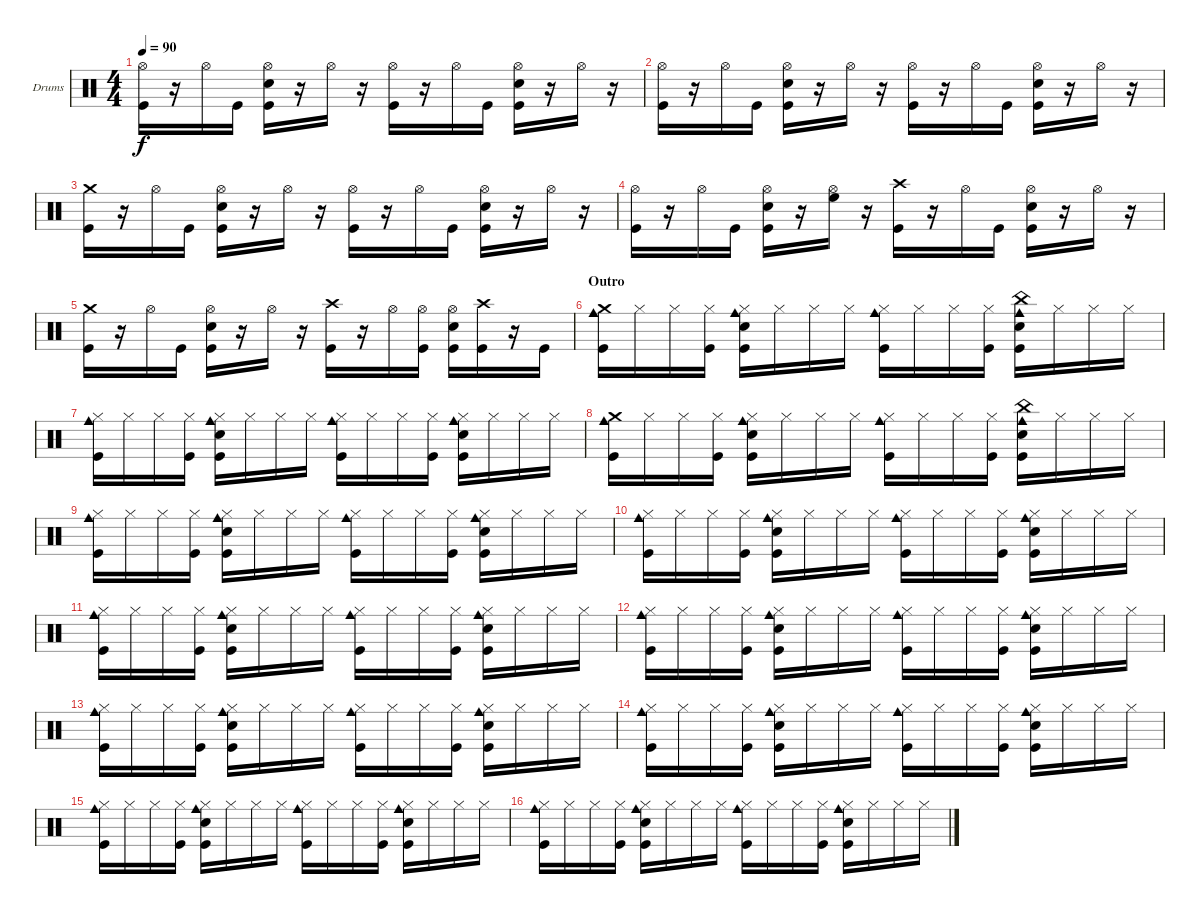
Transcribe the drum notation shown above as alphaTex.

\bracketExtendMode groupsimilarinstruments
\firstSystemTrackNameOrientation horizontal
\otherSystemsTrackNameOrientation horizontal
\track ("Drums" "Drums") {multiBarRest instrument percussion}
\staff {score}
\articulation defaults
\ts (4 4)
\tempo 90
\clef neutral
\ks c
("Hi-Hat (open)" "Kick (hit)").16{dy f} r.16 "Hi-Hat (open)".16 "Kick (hit)".16 ("Hi-Hat (open)" "Snare (hit) 2" "Kick (hit)").16 r.16 "Hi-Hat (open)".16 r.16 ("Hi-Hat (open)" "Kick (hit)").16 r.16 "Hi-Hat (open)".16 "Kick (hit)".16 ("Hi-Hat (open)" "Snare (hit) 2" "Kick (hit)").16 r.16 "Hi-Hat (open)".16 r.16 |
("Hi-Hat (open)" "Kick (hit)").16 r.16 "Hi-Hat (open)".16 "Kick (hit)".16 ("Hi-Hat (open)" "Snare (hit) 2" "Kick (hit)").16 r.16 "Hi-Hat (open)".16 r.16 ("Hi-Hat (open)" "Kick (hit)").16 r.16 "Hi-Hat (open)".16 "Kick (hit)".16 ("Hi-Hat (open)" "Snare (hit) 2" "Kick (hit)").16 r.16 "Hi-Hat (open)".16 r.16 |
("Crash medium (hit)" "Kick (hit)").16 r.16 "Hi-Hat (open)".16 "Kick (hit)".16 ("Hi-Hat (open)" "Snare (hit) 2" "Kick (hit)").16 r.16 "Hi-Hat (open)".16 r.16 ("Hi-Hat (open)" "Kick (hit)").16 r.16 "Hi-Hat (open)".16 "Kick (hit)".16 ("Hi-Hat (open)" "Snare (hit) 2" "Kick (hit)").16 r.16 "Hi-Hat (open)".16 r.16 |
("Hi-Hat (open)" "Kick (hit)").16 r.16 "Hi-Hat (open)".16 "Kick (hit)".16 ("Hi-Hat (open)" "Snare (hit) 2" "Kick (hit)").16 r.16 ("Hi-Hat (open)" "High Floor Tom (hit)").16 r.16 ("Crash high (hit)" "Kick (hit)").16 r.16 "Hi-Hat (open)".16 "Kick (hit)".16 ("Hi-Hat (open)" "Snare (hit) 2" "Kick (hit)").16 r.16 "Hi-Hat (open)".16 r.16 |
("Crash medium (hit)" "Kick (hit)").16 r.16 "Hi-Hat (open)".16 "Kick (hit)".16 ("Hi-Hat (open)" "Snare (hit) 2" "Kick (hit)").16 r.16 "Hi-Hat (open)".16 r.16 ("Crash high (hit)" "Kick (hit)").16 r.16 "Hi-Hat (open)".16 ("Hi-Hat (open)" "Kick (hit)").16 ("Hi-Hat (open)" "Snare (hit) 2" "Kick (hit)").16 ("Crash high (hit)" "Kick (hit)").16 r.16 "Kick (hit)".16 |
\section ("" "Outro")
("Crash medium (hit)" "Kick (hit)" "Cowbell medium (hit)").16 "Hi-Hat (closed)".16 "Hi-Hat (closed)".16 ("Hi-Hat (closed)" "Kick (hit)").16 ("Hi-Hat (closed)" "Snare (hit) 2" "Kick (hit)" "Cowbell medium (hit)").16 "Hi-Hat (closed)".16 "Hi-Hat (closed)".16 "Hi-Hat (closed)".16 ("Hi-Hat (closed)" "Kick (hit)" "Cowbell medium (hit)").16 "Hi-Hat (closed)".16 "Hi-Hat (closed)".16 ("Hi-Hat (closed)" "Kick (hit)").16 ("China (hit)" "Snare (hit) 2" "Kick (hit)" "Cowbell medium (hit)").16 "Hi-Hat (closed)".16 "Hi-Hat (closed)".16 "Hi-Hat (closed)".16 |
("Hi-Hat (closed)" "Kick (hit)" "Cowbell medium (hit)").16 "Hi-Hat (closed)".16 "Hi-Hat (closed)".16 ("Hi-Hat (closed)" "Kick (hit)").16 ("Hi-Hat (closed)" "Snare (hit) 2" "Kick (hit)" "Cowbell medium (hit)").16 "Hi-Hat (closed)".16 "Hi-Hat (closed)".16 "Hi-Hat (closed)".16 ("Hi-Hat (closed)" "Kick (hit)" "Cowbell medium (hit)").16 "Hi-Hat (closed)".16 "Hi-Hat (closed)".16 ("Hi-Hat (closed)" "Kick (hit)").16 ("Hi-Hat (closed)" "Snare (hit) 2" "Kick (hit)" "Cowbell medium (hit)").16 "Hi-Hat (closed)".16 "Hi-Hat (closed)".16 "Hi-Hat (closed)".16 |
("Crash medium (hit)" "Kick (hit)" "Cowbell medium (hit)").16 "Hi-Hat (closed)".16 "Hi-Hat (closed)".16 ("Hi-Hat (closed)" "Kick (hit)").16 ("Hi-Hat (closed)" "Snare (hit) 2" "Kick (hit)" "Cowbell medium (hit)").16 "Hi-Hat (closed)".16 "Hi-Hat (closed)".16 "Hi-Hat (closed)".16 ("Hi-Hat (closed)" "Kick (hit)" "Cowbell medium (hit)").16 "Hi-Hat (closed)".16 "Hi-Hat (closed)".16 ("Hi-Hat (closed)" "Kick (hit)").16 ("China (hit)" "Snare (hit) 2" "Kick (hit)" "Cowbell medium (hit)").16 "Hi-Hat (closed)".16 "Hi-Hat (closed)".16 "Hi-Hat (closed)".16 |
("Hi-Hat (closed)" "Kick (hit)" "Cowbell medium (hit)").16 "Hi-Hat (closed)".16 "Hi-Hat (closed)".16 ("Hi-Hat (closed)" "Kick (hit)").16 ("Hi-Hat (closed)" "Snare (hit) 2" "Kick (hit)" "Cowbell medium (hit)").16 "Hi-Hat (closed)".16 "Hi-Hat (closed)".16 "Hi-Hat (closed)".16 ("Hi-Hat (closed)" "Kick (hit)" "Cowbell medium (hit)").16 "Hi-Hat (closed)".16 "Hi-Hat (closed)".16 ("Hi-Hat (closed)" "Kick (hit)").16 ("Hi-Hat (closed)" "Snare (hit) 2" "Kick (hit)" "Cowbell medium (hit)").16 "Hi-Hat (closed)".16 "Hi-Hat (closed)".16 "Hi-Hat (closed)".16 |
("Hi-Hat (closed)" "Kick (hit)" "Cowbell medium (hit)").16 "Hi-Hat (closed)".16 "Hi-Hat (closed)".16 ("Hi-Hat (closed)" "Kick (hit)").16 ("Hi-Hat (closed)" "Snare (hit) 2" "Kick (hit)" "Cowbell medium (hit)").16 "Hi-Hat (closed)".16 "Hi-Hat (closed)".16 "Hi-Hat (closed)".16 ("Hi-Hat (closed)" "Kick (hit)" "Cowbell medium (hit)").16 "Hi-Hat (closed)".16 "Hi-Hat (closed)".16 ("Hi-Hat (closed)" "Kick (hit)").16 ("Hi-Hat (closed)" "Snare (hit) 2" "Kick (hit)" "Cowbell medium (hit)").16 "Hi-Hat (closed)".16 "Hi-Hat (closed)".16 "Hi-Hat (closed)".16 |
("Hi-Hat (closed)" "Kick (hit)" "Cowbell medium (hit)").16 "Hi-Hat (closed)".16 "Hi-Hat (closed)".16 ("Hi-Hat (closed)" "Kick (hit)").16 ("Hi-Hat (closed)" "Snare (hit) 2" "Kick (hit)" "Cowbell medium (hit)").16 "Hi-Hat (closed)".16 "Hi-Hat (closed)".16 "Hi-Hat (closed)".16 ("Hi-Hat (closed)" "Kick (hit)" "Cowbell medium (hit)").16 "Hi-Hat (closed)".16 "Hi-Hat (closed)".16 ("Hi-Hat (closed)" "Kick (hit)").16 ("Hi-Hat (closed)" "Snare (hit) 2" "Kick (hit)" "Cowbell medium (hit)").16 "Hi-Hat (closed)".16 "Hi-Hat (closed)".16 "Hi-Hat (closed)".16 |
("Hi-Hat (closed)" "Kick (hit)" "Cowbell medium (hit)").16 "Hi-Hat (closed)".16 "Hi-Hat (closed)".16 ("Hi-Hat (closed)" "Kick (hit)").16 ("Hi-Hat (closed)" "Snare (hit) 2" "Kick (hit)" "Cowbell medium (hit)").16 "Hi-Hat (closed)".16 "Hi-Hat (closed)".16 "Hi-Hat (closed)".16 ("Hi-Hat (closed)" "Kick (hit)" "Cowbell medium (hit)").16 "Hi-Hat (closed)".16 "Hi-Hat (closed)".16 ("Hi-Hat (closed)" "Kick (hit)").16 ("Hi-Hat (closed)" "Snare (hit) 2" "Kick (hit)" "Cowbell medium (hit)").16 "Hi-Hat (closed)".16 "Hi-Hat (closed)".16 "Hi-Hat (closed)".16 |
("Hi-Hat (closed)" "Kick (hit)" "Cowbell medium (hit)").16 "Hi-Hat (closed)".16 "Hi-Hat (closed)".16 ("Hi-Hat (closed)" "Kick (hit)").16 ("Hi-Hat (closed)" "Snare (hit) 2" "Kick (hit)" "Cowbell medium (hit)").16 "Hi-Hat (closed)".16 "Hi-Hat (closed)".16 "Hi-Hat (closed)".16 ("Hi-Hat (closed)" "Kick (hit)" "Cowbell medium (hit)").16 "Hi-Hat (closed)".16 "Hi-Hat (closed)".16 ("Hi-Hat (closed)" "Kick (hit)").16 ("Hi-Hat (closed)" "Snare (hit) 2" "Kick (hit)" "Cowbell medium (hit)").16 "Hi-Hat (closed)".16 "Hi-Hat (closed)".16 "Hi-Hat (closed)".16 |
("Hi-Hat (closed)" "Kick (hit)" "Cowbell medium (hit)").16 "Hi-Hat (closed)".16 "Hi-Hat (closed)".16 ("Hi-Hat (closed)" "Kick (hit)").16 ("Hi-Hat (closed)" "Snare (hit) 2" "Kick (hit)" "Cowbell medium (hit)").16 "Hi-Hat (closed)".16 "Hi-Hat (closed)".16 "Hi-Hat (closed)".16 ("Hi-Hat (closed)" "Kick (hit)" "Cowbell medium (hit)").16 "Hi-Hat (closed)".16 "Hi-Hat (closed)".16 ("Hi-Hat (closed)" "Kick (hit)").16 ("Hi-Hat (closed)" "Snare (hit) 2" "Kick (hit)" "Cowbell medium (hit)").16 "Hi-Hat (closed)".16 "Hi-Hat (closed)".16 "Hi-Hat (closed)".16 |
("Hi-Hat (closed)" "Kick (hit)" "Cowbell medium (hit)").16 "Hi-Hat (closed)".16 "Hi-Hat (closed)".16 ("Hi-Hat (closed)" "Kick (hit)").16 ("Hi-Hat (closed)" "Snare (hit) 2" "Kick (hit)" "Cowbell medium (hit)").16 "Hi-Hat (closed)".16 "Hi-Hat (closed)".16 "Hi-Hat (closed)".16 ("Hi-Hat (closed)" "Kick (hit)" "Cowbell medium (hit)").16 "Hi-Hat (closed)".16 "Hi-Hat (closed)".16 ("Hi-Hat (closed)" "Kick (hit)").16 ("Hi-Hat (closed)" "Snare (hit) 2" "Kick (hit)" "Cowbell medium (hit)").16 "Hi-Hat (closed)".16 "Hi-Hat (closed)".16 "Hi-Hat (closed)".16 |
("Hi-Hat (closed)" "Kick (hit)" "Cowbell medium (hit)").16 "Hi-Hat (closed)".16 "Hi-Hat (closed)".16 ("Hi-Hat (closed)" "Kick (hit)").16 ("Hi-Hat (closed)" "Snare (hit) 2" "Kick (hit)" "Cowbell medium (hit)").16 "Hi-Hat (closed)".16 "Hi-Hat (closed)".16 "Hi-Hat (closed)".16 ("Hi-Hat (closed)" "Kick (hit)" "Cowbell medium (hit)").16 "Hi-Hat (closed)".16 "Hi-Hat (closed)".16 ("Hi-Hat (closed)" "Kick (hit)").16 ("Hi-Hat (closed)" "Snare (hit) 2" "Kick (hit)" "Cowbell medium (hit)").16 "Hi-Hat (closed)".16 "Hi-Hat (closed)".16 "Hi-Hat (closed)".16
